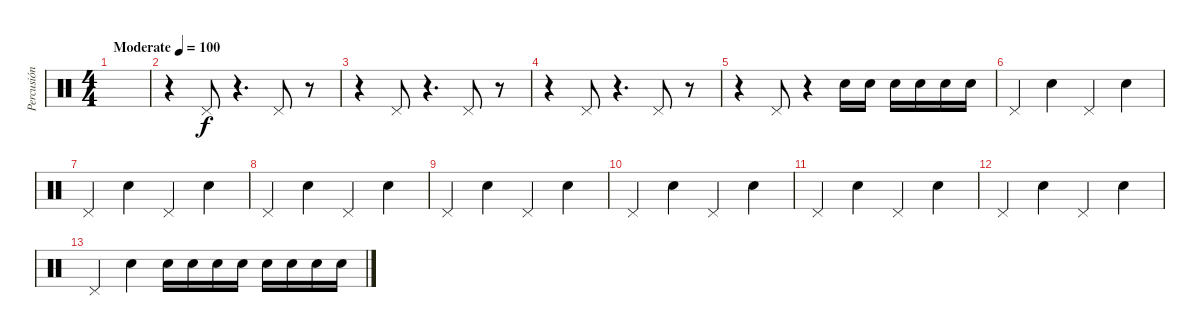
\track ("Percusión" "Percusión") {instrument percussion}
\staff {score}
\articulation defaults
\ts (4 4)
\tempo (100 "Moderate")
\clef neutral
\ks c
|
r.4 "Pedal Hi-Hat (hit)".8 r.4{d} "Pedal Hi-Hat (hit)".8 r.8 |
r.4 "Pedal Hi-Hat (hit)".8 r.4{d} "Pedal Hi-Hat (hit)".8 r.8 |
r.4 "Pedal Hi-Hat (hit)".8 r.4{d} "Pedal Hi-Hat (hit)".8 r.8 |
r.4 "Pedal Hi-Hat (hit)".8 r.4 "Electric Snare (hit)".16 "Electric Snare (hit)".16 "Electric Snare (hit)".16 "Electric Snare (hit)".16 "Electric Snare (hit)".16 "Electric Snare (hit)".16 |
"Pedal Hi-Hat (hit)".4 "Snare (hit) 2".4 "Pedal Hi-Hat (hit)".4 "Snare (hit) 2".4 |
"Pedal Hi-Hat (hit)".4 "Electric Snare (hit)".4 "Pedal Hi-Hat (hit)".4 "Electric Snare (hit)".4 |
"Pedal Hi-Hat (hit)".4 "Electric Snare (hit)".4 "Pedal Hi-Hat (hit)".4 "Electric Snare (hit)".4 |
"Pedal Hi-Hat (hit)".4 "Electric Snare (hit)".4 "Pedal Hi-Hat (hit)".4 "Electric Snare (hit)".4 |
"Pedal Hi-Hat (hit)".4 "Electric Snare (hit)".4 "Pedal Hi-Hat (hit)".4 "Electric Snare (hit)".4 |
"Pedal Hi-Hat (hit)".4 "Electric Snare (hit)".4 "Pedal Hi-Hat (hit)".4 "Electric Snare (hit)".4 |
"Pedal Hi-Hat (hit)".4 "Electric Snare (hit)".4 "Pedal Hi-Hat (hit)".4 "Electric Snare (hit)".4 |
"Pedal Hi-Hat (hit)".4 "Electric Snare (hit)".4 "Electric Snare (hit)".16 "Electric Snare (hit)".16 "Electric Snare (hit)".16 "Electric Snare (hit)".16 "Electric Snare (hit)".16 "Electric Snare (hit)".16 "Electric Snare (hit)".16 "Electric Snare (hit)".16
